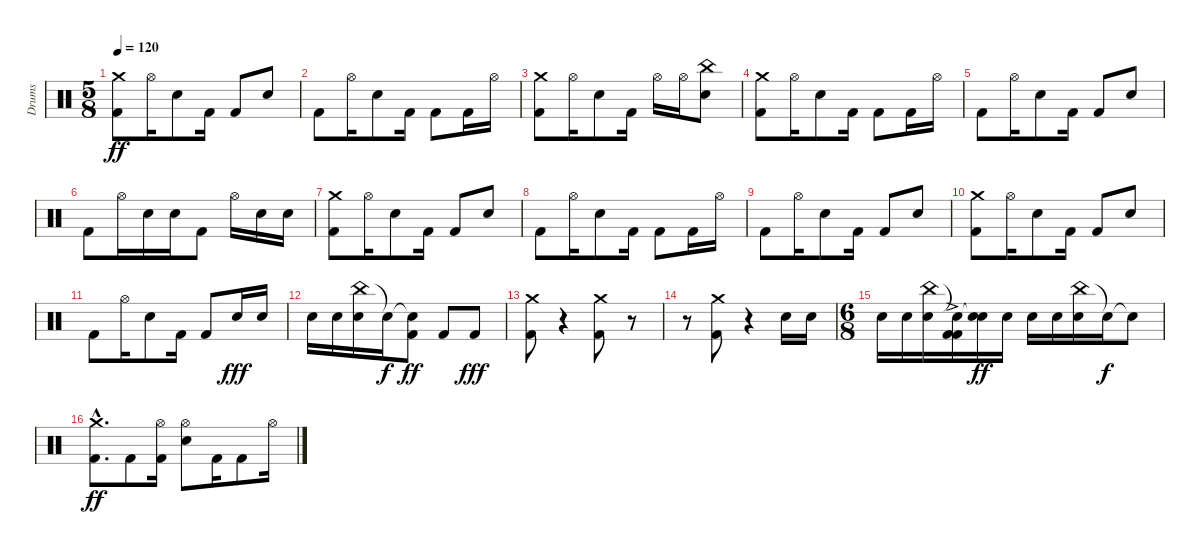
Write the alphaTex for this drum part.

\track ("Drums" "Drums") {instrument percussion}
\staff {score}
\articulation defaults
\ts (5 8)
\tempo 120
\clef neutral
\ks c
("Crash medium (hit)" "Kick (hit) 2").8{dy ff} "Hi-Hat (open)".16 "Snare (hit) 2".8 "Kick (hit) 2".16 "Kick (hit) 2".8 "Snare (hit) 2".8 |
"Kick (hit) 2".8 "Hi-Hat (open)".16 "Snare (hit) 2".8 "Kick (hit) 2".16 "Kick (hit) 2".8 "Kick (hit) 2".16 "Hi-Hat (open)".16 |
("Crash medium (hit)" "Kick (hit) 2").8 "Hi-Hat (open)".16 "Snare (hit) 2".8 "Kick (hit) 2".16 "Hi-Hat (open)".16 "Hi-Hat (open)".16 ("China (hit)" "Snare (hit) 2").8 |
("Crash medium (hit)" "Kick (hit) 2").8 "Hi-Hat (open)".16 "Snare (hit) 2".8 "Kick (hit) 2".16 "Kick (hit) 2".8 "Kick (hit) 2".16 "Hi-Hat (open)".16 |
"Kick (hit) 2".8 "Hi-Hat (open)".16 "Snare (hit) 2".8 "Kick (hit) 2".16 "Kick (hit) 2".8 "Snare (hit) 2".8 |
"Kick (hit) 2".8 "Hi-Hat (open)".16 "Snare (hit) 2".16 "Snare (hit) 2".16 "Kick (hit) 2".8 "Hi-Hat (open)".16 "Snare (hit) 2".16 "Snare (hit) 2".16 |
("Crash medium (hit)" "Kick (hit) 2").8 "Hi-Hat (open)".16 "Snare (hit) 2".8 "Kick (hit) 2".16 "Kick (hit) 2".8 "Snare (hit) 2".8 |
"Kick (hit) 2".8 "Hi-Hat (open)".16 "Snare (hit) 2".8 "Kick (hit) 2".16 "Kick (hit) 2".8 "Kick (hit) 2".16 "Hi-Hat (open)".16 |
"Kick (hit) 2".8 "Hi-Hat (open)".16 "Snare (hit) 2".8 "Kick (hit) 2".16 "Kick (hit) 2".8 "Snare (hit) 2".8 |
("Crash medium (hit)" "Kick (hit) 2").8 "Hi-Hat (open)".16 "Snare (hit) 2".8 "Kick (hit) 2".16 "Kick (hit) 2".8 "Snare (hit) 2".8 |
"Kick (hit) 2".8 "Hi-Hat (open)".16 "Snare (hit) 2".8 "Kick (hit) 2".16 "Kick (hit) 2".8 "Snare (hit) 2".16{dy fff} "Snare (hit) 2".16 |
"Snare (hit) 2".16 "Snare (hit) 2".16 ("China (hit)" "Snare (hit) 2").16 "Snare (hit)"{t}.16{dy f} ("Snare (hit)"{t} "Kick (hit) 2").8{dy ff} "Kick (hit) 2".8 "Kick (hit) 2".8{dy fff} |
("Crash medium (hit)" "Kick (hit) 2").8 r.4 ("Crash medium (hit)" "Kick (hit) 2").8 r.8 |
r.8 ("Crash medium (hit)" "Kick (hit) 2").8 r.4 "Snare (hit) 2".16 "Snare (hit) 2".16 |
\ts (6 8)
"Snare (hit) 2".16 "Snare (hit) 2".16 ("China (hit)" "Snare (hit) 2").16 ("Snare (hit)"{t} "Kick (hit) 2"{ac} "Kick (hit) 2"{ac}).16 ("Snare (hit)"{t} "Snare (hit) 2").16{dy ff} "Snare (hit) 2".16 "Snare (hit) 2".16 "Snare (hit) 2".16 ("China (hit)" "Snare (hit) 2").16 "Snare (hit)"{t}.16{dy f} "Snare (hit)"{t}.8 |
("Crash medium (hit)"{hac} "Kick (hit) 2"{hac}).8{d dy ff} "Kick (hit) 2".8 ("Hi-Hat (open)" "Kick (hit) 2").16 ("Hi-Hat (open)" "Snare (hit) 2").8 "Kick (hit) 2".16 "Kick (hit) 2".8 "Hi-Hat (open)".16
